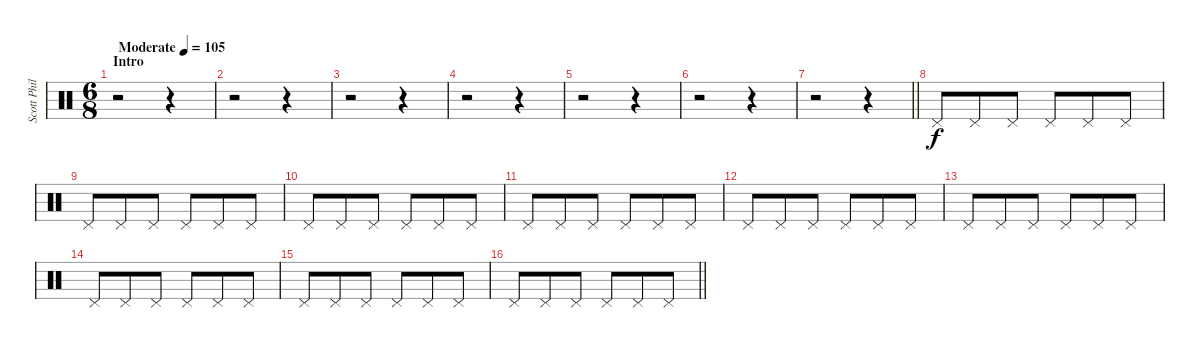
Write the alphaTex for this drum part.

\track ("Scott Phillips (Drums)" "Scott Phil") {instrument percussion}
\staff {score}
\articulation defaults
\ts (6 8)
\section ("" "Intro")
\tempo (105 "Moderate")
\clef neutral
\ks c
r.2{dy f} r.4 |
r.2 r.4 |
r.2 r.4 |
r.2 r.4 |
r.2 r.4 |
r.2 r.4 |
\barLineRight lightlight
r.2 r.4 |
"Pedal Hi-Hat (hit)".8 "Pedal Hi-Hat (hit)".8 "Pedal Hi-Hat (hit)".8 "Pedal Hi-Hat (hit)".8 "Pedal Hi-Hat (hit)".8 "Pedal Hi-Hat (hit)".8 |
"Pedal Hi-Hat (hit)".8 "Pedal Hi-Hat (hit)".8 "Pedal Hi-Hat (hit)".8 "Pedal Hi-Hat (hit)".8 "Pedal Hi-Hat (hit)".8 "Pedal Hi-Hat (hit)".8 |
"Pedal Hi-Hat (hit)".8 "Pedal Hi-Hat (hit)".8 "Pedal Hi-Hat (hit)".8 "Pedal Hi-Hat (hit)".8 "Pedal Hi-Hat (hit)".8 "Pedal Hi-Hat (hit)".8 |
"Pedal Hi-Hat (hit)".8 "Pedal Hi-Hat (hit)".8 "Pedal Hi-Hat (hit)".8 "Pedal Hi-Hat (hit)".8 "Pedal Hi-Hat (hit)".8 "Pedal Hi-Hat (hit)".8 |
"Pedal Hi-Hat (hit)".8 "Pedal Hi-Hat (hit)".8 "Pedal Hi-Hat (hit)".8 "Pedal Hi-Hat (hit)".8 "Pedal Hi-Hat (hit)".8 "Pedal Hi-Hat (hit)".8 |
"Pedal Hi-Hat (hit)".8 "Pedal Hi-Hat (hit)".8 "Pedal Hi-Hat (hit)".8 "Pedal Hi-Hat (hit)".8 "Pedal Hi-Hat (hit)".8 "Pedal Hi-Hat (hit)".8 |
"Pedal Hi-Hat (hit)".8 "Pedal Hi-Hat (hit)".8 "Pedal Hi-Hat (hit)".8 "Pedal Hi-Hat (hit)".8 "Pedal Hi-Hat (hit)".8 "Pedal Hi-Hat (hit)".8 |
"Pedal Hi-Hat (hit)".8 "Pedal Hi-Hat (hit)".8 "Pedal Hi-Hat (hit)".8 "Pedal Hi-Hat (hit)".8 "Pedal Hi-Hat (hit)".8 "Pedal Hi-Hat (hit)".8 |
\barLineRight lightlight "Pedal Hi-Hat (hit)".8 "Pedal Hi-Hat (hit)".8 "Pedal Hi-Hat (hit)".8 "Pedal Hi-Hat (hit)".8 "Pedal Hi-Hat (hit)".8 "Pedal Hi-Hat (hit)".8
